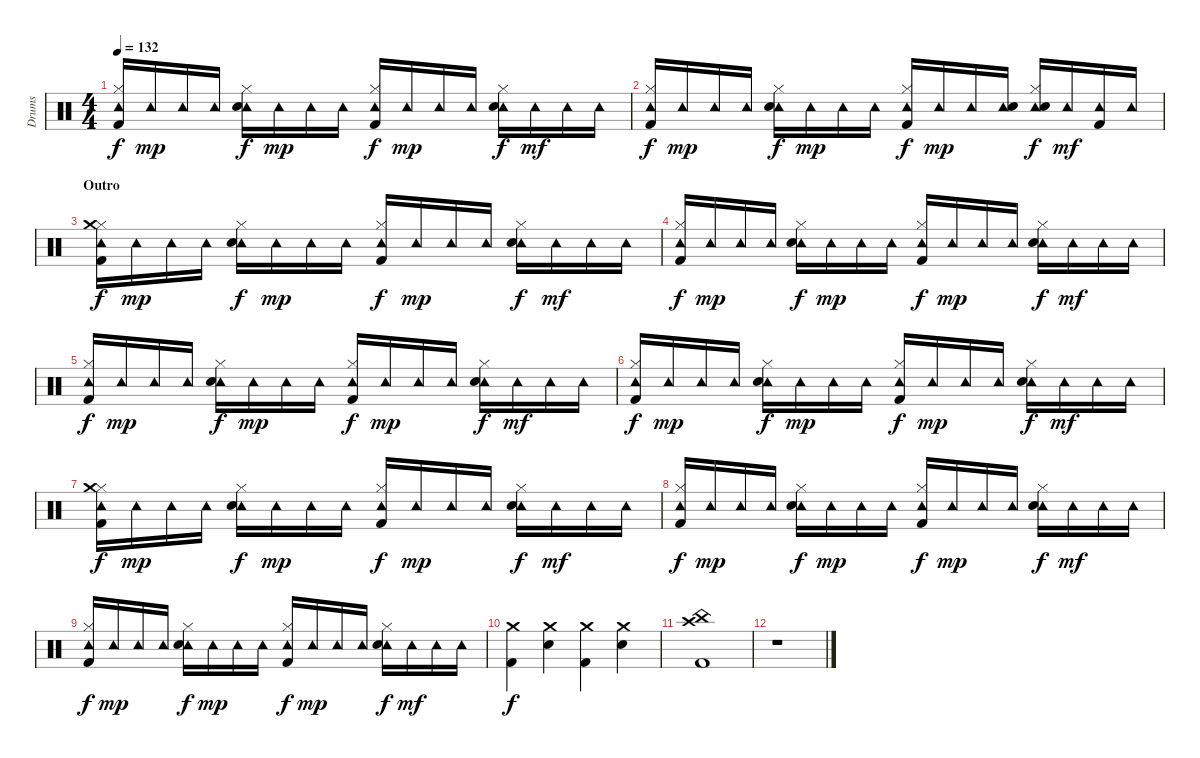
\track ("Drums" "Drums") {instrument percussion}
\staff {score}
\articulation defaults
\ts (4 4)
\tempo 132
\clef neutral
\ks c
("Tambourine (hit)" "Hi-Hat (closed)" "Kick (hit) 2").16{dy f} "Tambourine (hit)".16{dy mp} "Tambourine (hit)".16 "Tambourine (hit)".16 ("Tambourine (hit)" "Hi-Hat (closed)" "Snare (hit) 2").16{dy f} "Tambourine (hit)".16{dy mp} "Tambourine (hit)".16 "Tambourine (hit)".16 ("Tambourine (hit)" "Hi-Hat (closed)" "Kick (hit) 2").16{dy f} "Tambourine (hit)".16{dy mp} "Tambourine (hit)".16 "Tambourine (hit)".16 ("Tambourine (hit)" "Hi-Hat (closed)" "Snare (hit) 2").16{dy f} "Tambourine (hit)".16{dy mf} "Tambourine (hit)".16 "Tambourine (hit)".16 |
("Tambourine (hit)" "Hi-Hat (closed)" "Kick (hit) 2").16{dy f} "Tambourine (hit)".16{dy mp} "Tambourine (hit)".16 "Tambourine (hit)".16 ("Tambourine (hit)" "Hi-Hat (closed)" "Snare (hit) 2").16{dy f} "Tambourine (hit)".16{dy mp} "Tambourine (hit)".16 "Tambourine (hit)".16 ("Tambourine (hit)" "Hi-Hat (closed)" "Kick (hit) 2").16{dy f} "Tambourine (hit)".16{dy mp} "Tambourine (hit)".16 ("Tambourine (hit)" "Snare (hit) 2").16 ("Tambourine (hit)" "Hi-Hat (closed)" "Snare (hit) 2").16{dy f} "Tambourine (hit)".16{dy mf} ("Tambourine (hit)" "Kick (hit) 2").16 "Tambourine (hit)".16 |
\section ("" "Outro")
("Tambourine (hit)" "Hi-Hat (closed)" "Crash medium (hit)" "Kick (hit) 2").16{dy f} "Tambourine (hit)".16{dy mp} "Tambourine (hit)".16 "Tambourine (hit)".16 ("Tambourine (hit)" "Hi-Hat (closed)" "Snare (hit) 2").16{dy f} "Tambourine (hit)".16{dy mp} "Tambourine (hit)".16 "Tambourine (hit)".16 ("Tambourine (hit)" "Hi-Hat (closed)" "Kick (hit) 2").16{dy f} "Tambourine (hit)".16{dy mp} "Tambourine (hit)".16 "Tambourine (hit)".16 ("Tambourine (hit)" "Hi-Hat (closed)" "Snare (hit) 2").16{dy f} "Tambourine (hit)".16{dy mf} "Tambourine (hit)".16 "Tambourine (hit)".16 |
("Tambourine (hit)" "Hi-Hat (closed)" "Kick (hit) 2").16{dy f} "Tambourine (hit)".16{dy mp} "Tambourine (hit)".16 "Tambourine (hit)".16 ("Tambourine (hit)" "Hi-Hat (closed)" "Snare (hit) 2").16{dy f} "Tambourine (hit)".16{dy mp} "Tambourine (hit)".16 "Tambourine (hit)".16 ("Tambourine (hit)" "Hi-Hat (closed)" "Kick (hit) 2").16{dy f} "Tambourine (hit)".16{dy mp} "Tambourine (hit)".16 "Tambourine (hit)".16 ("Tambourine (hit)" "Hi-Hat (closed)" "Snare (hit) 2").16{dy f} "Tambourine (hit)".16{dy mf} "Tambourine (hit)".16 "Tambourine (hit)".16 |
("Tambourine (hit)" "Hi-Hat (closed)" "Kick (hit) 2").16{dy f} "Tambourine (hit)".16{dy mp} "Tambourine (hit)".16 "Tambourine (hit)".16 ("Tambourine (hit)" "Hi-Hat (closed)" "Snare (hit) 2").16{dy f} "Tambourine (hit)".16{dy mp} "Tambourine (hit)".16 "Tambourine (hit)".16 ("Tambourine (hit)" "Hi-Hat (closed)" "Kick (hit) 2").16{dy f} "Tambourine (hit)".16{dy mp} "Tambourine (hit)".16 "Tambourine (hit)".16 ("Tambourine (hit)" "Hi-Hat (closed)" "Snare (hit) 2").16{dy f} "Tambourine (hit)".16{dy mf} "Tambourine (hit)".16 "Tambourine (hit)".16 |
("Tambourine (hit)" "Hi-Hat (closed)" "Kick (hit) 2").16{dy f} "Tambourine (hit)".16{dy mp} "Tambourine (hit)".16 "Tambourine (hit)".16 ("Tambourine (hit)" "Hi-Hat (closed)" "Snare (hit) 2").16{dy f} "Tambourine (hit)".16{dy mp} "Tambourine (hit)".16 "Tambourine (hit)".16 ("Tambourine (hit)" "Hi-Hat (closed)" "Kick (hit) 2").16{dy f} "Tambourine (hit)".16{dy mp} "Tambourine (hit)".16 "Tambourine (hit)".16 ("Tambourine (hit)" "Hi-Hat (closed)" "Snare (hit) 2").16{dy f} "Tambourine (hit)".16{dy mf} "Tambourine (hit)".16 "Tambourine (hit)".16 |
("Tambourine (hit)" "Hi-Hat (closed)" "Crash medium (hit)" "Kick (hit) 2").16{dy f} "Tambourine (hit)".16{dy mp} "Tambourine (hit)".16 "Tambourine (hit)".16 ("Tambourine (hit)" "Hi-Hat (closed)" "Snare (hit) 2").16{dy f} "Tambourine (hit)".16{dy mp} "Tambourine (hit)".16 "Tambourine (hit)".16 ("Tambourine (hit)" "Hi-Hat (closed)" "Kick (hit) 2").16{dy f} "Tambourine (hit)".16{dy mp} "Tambourine (hit)".16 "Tambourine (hit)".16 ("Tambourine (hit)" "Hi-Hat (closed)" "Snare (hit) 2").16{dy f} "Tambourine (hit)".16{dy mf} "Tambourine (hit)".16 "Tambourine (hit)".16 |
("Tambourine (hit)" "Hi-Hat (closed)" "Kick (hit) 2").16{dy f} "Tambourine (hit)".16{dy mp} "Tambourine (hit)".16 "Tambourine (hit)".16 ("Tambourine (hit)" "Hi-Hat (closed)" "Snare (hit) 2").16{dy f} "Tambourine (hit)".16{dy mp} "Tambourine (hit)".16 "Tambourine (hit)".16 ("Tambourine (hit)" "Hi-Hat (closed)" "Kick (hit) 2").16{dy f} "Tambourine (hit)".16{dy mp} "Tambourine (hit)".16 "Tambourine (hit)".16 ("Tambourine (hit)" "Hi-Hat (closed)" "Snare (hit) 2").16{dy f} "Tambourine (hit)".16{dy mf} "Tambourine (hit)".16 "Tambourine (hit)".16 |
("Tambourine (hit)" "Hi-Hat (closed)" "Kick (hit) 2").16{dy f} "Tambourine (hit)".16{dy mp} "Tambourine (hit)".16 "Tambourine (hit)".16 ("Tambourine (hit)" "Hi-Hat (closed)" "Snare (hit) 2").16{dy f} "Tambourine (hit)".16{dy mp} "Tambourine (hit)".16 "Tambourine (hit)".16 ("Tambourine (hit)" "Hi-Hat (closed)" "Kick (hit) 2").16{dy f} "Tambourine (hit)".16{dy mp} "Tambourine (hit)".16 "Tambourine (hit)".16 ("Tambourine (hit)" "Hi-Hat (closed)" "Snare (hit) 2").16{dy f} "Tambourine (hit)".16{dy mf} "Tambourine (hit)".16 "Tambourine (hit)".16 |
("Crash medium (hit)" "Kick (hit) 2").4{dy f} ("Crash medium (hit)" "Electric Snare (hit)").4 ("Crash medium (hit)" "Kick (hit) 2").4 ("Crash medium (hit)" "Electric Snare (hit)").4 |
("China (hit)" "Crash high (hit)" "Kick (hit) 2").1 |
r.1
